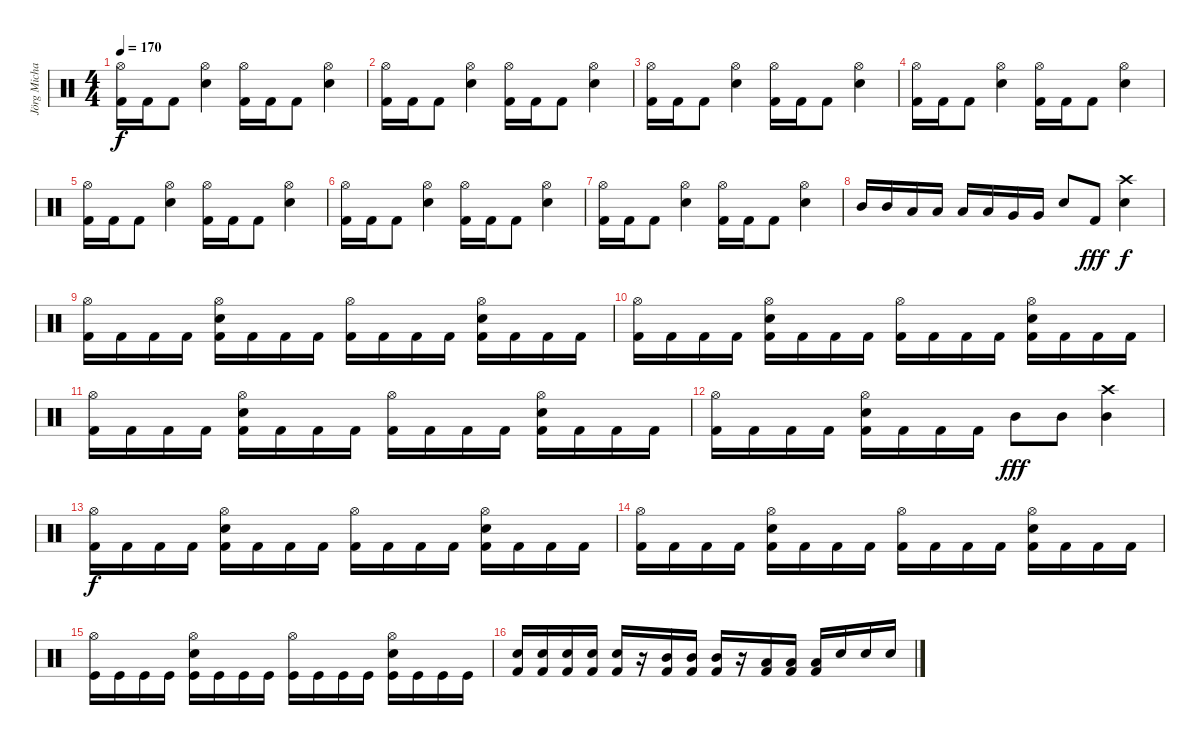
\track ("Jörg Michael" "Jörg Micha") {instrument percussion}
\staff {score}
\articulation defaults
\ts (4 4)
\tempo 170
\clef neutral
\ks c
("Hi-Hat (open)" "Kick (hit) 2").16{dy f} "Kick (hit) 2".16 "Kick (hit) 2".8 ("Hi-Hat (open)" "Snare (hit) 2").4 ("Hi-Hat (open)" "Kick (hit) 2").16 "Kick (hit) 2".16 "Kick (hit) 2".8 ("Hi-Hat (open)" "Snare (hit) 2").4 |
("Hi-Hat (open)" "Kick (hit) 2").16 "Kick (hit) 2".16 "Kick (hit) 2".8 ("Hi-Hat (open)" "Snare (hit) 2").4 ("Hi-Hat (open)" "Kick (hit) 2").16 "Kick (hit) 2".16 "Kick (hit) 2".8 ("Hi-Hat (open)" "Snare (hit) 2").4 |
("Hi-Hat (open)" "Kick (hit) 2").16 "Kick (hit) 2".16 "Kick (hit) 2".8 ("Hi-Hat (open)" "Snare (hit) 2").4 ("Hi-Hat (open)" "Kick (hit) 2").16 "Kick (hit) 2".16 "Kick (hit) 2".8 ("Hi-Hat (open)" "Snare (hit) 2").4 |
("Hi-Hat (open)" "Kick (hit) 2").16 "Kick (hit) 2".16 "Kick (hit) 2".8 ("Hi-Hat (open)" "Snare (hit) 2").4 ("Hi-Hat (open)" "Kick (hit) 2").16 "Kick (hit) 2".16 "Kick (hit) 2".8 ("Hi-Hat (open)" "Snare (hit) 2").4 |
("Hi-Hat (open)" "Kick (hit) 2").16 "Kick (hit) 2".16 "Kick (hit) 2".8 ("Hi-Hat (open)" "Snare (hit) 2").4 ("Hi-Hat (open)" "Kick (hit) 2").16 "Kick (hit) 2".16 "Kick (hit) 2".8 ("Hi-Hat (open)" "Snare (hit) 2").4 |
("Hi-Hat (open)" "Kick (hit) 2").16 "Kick (hit) 2".16 "Kick (hit) 2".8 ("Hi-Hat (open)" "Snare (hit) 2").4 ("Hi-Hat (open)" "Kick (hit) 2").16 "Kick (hit) 2".16 "Kick (hit) 2".8 ("Hi-Hat (open)" "Snare (hit) 2").4 |
("Hi-Hat (open)" "Kick (hit) 2").16 "Kick (hit) 2".16 "Kick (hit) 2".8 ("Hi-Hat (open)" "Snare (hit) 2").4 ("Hi-Hat (open)" "Kick (hit) 2").16 "Kick (hit) 2".16 "Kick (hit) 2".8 ("Hi-Hat (open)" "Snare (hit) 2").4 |
"Mid Tom (hit)".16 "Mid Tom (hit)".16 "Low Tom (hit)".16 "Low Tom (hit)".16 "Low Floor Tom (hit)".16 "Low Floor Tom (hit)".16 "Very Low Tom (hit)".16 "Very Low Tom (hit)".16 "Snare (hit) 2".8 "Kick (hit) 2".8{dy fff} ("Crash high (hit)" "Snare (hit) 2").4{dy f} |
("Hi-Hat (open)" "Kick (hit) 2").16 "Kick (hit) 2".16 "Kick (hit) 2".16 "Kick (hit) 2".16 ("Hi-Hat (open)" "Snare (hit) 2" "Kick (hit) 2").16 "Kick (hit) 2".16 "Kick (hit) 2".16 "Kick (hit) 2".16 ("Hi-Hat (open)" "Kick (hit) 2").16 "Kick (hit) 2".16 "Kick (hit) 2".16 "Kick (hit) 2".16 ("Hi-Hat (open)" "Snare (hit) 2" "Kick (hit) 2").16 "Kick (hit) 2".16 "Kick (hit) 2".16 "Kick (hit) 2".16 |
("Hi-Hat (open)" "Kick (hit) 2").16 "Kick (hit) 2".16 "Kick (hit) 2".16 "Kick (hit) 2".16 ("Hi-Hat (open)" "Snare (hit) 2" "Kick (hit) 2").16 "Kick (hit) 2".16 "Kick (hit) 2".16 "Kick (hit) 2".16 ("Hi-Hat (open)" "Kick (hit) 2").16 "Kick (hit) 2".16 "Kick (hit) 2".16 "Kick (hit) 2".16 ("Hi-Hat (open)" "Snare (hit) 2" "Kick (hit) 2").16 "Kick (hit) 2".16 "Kick (hit) 2".16 "Kick (hit) 2".16 |
("Hi-Hat (open)" "Kick (hit) 2").16 "Kick (hit) 2".16 "Kick (hit) 2".16 "Kick (hit) 2".16 ("Hi-Hat (open)" "Snare (hit) 2" "Kick (hit) 2").16 "Kick (hit) 2".16 "Kick (hit) 2".16 "Kick (hit) 2".16 ("Hi-Hat (open)" "Kick (hit) 2").16 "Kick (hit) 2".16 "Kick (hit) 2".16 "Kick (hit) 2".16 ("Hi-Hat (open)" "Snare (hit) 2" "Kick (hit) 2").16 "Kick (hit) 2".16 "Kick (hit) 2".16 "Kick (hit) 2".16 |
("Hi-Hat (open)" "Kick (hit) 2").16 "Kick (hit) 2".16 "Kick (hit) 2".16 "Kick (hit) 2".16 ("Hi-Hat (open)" "Snare (hit) 2" "Kick (hit) 2").16 "Kick (hit) 2".16 "Kick (hit) 2".16 "Kick (hit) 2".16 "Mid Tom (hit)".8{dy fff} "Mid Tom (hit)".8 ("Crash high (hit)" "Mid Tom (hit)").4 |
("Hi-Hat (open)" "Kick (hit) 2").16{dy f} "Kick (hit) 2".16 "Kick (hit) 2".16 "Kick (hit) 2".16 ("Hi-Hat (open)" "Snare (hit) 2" "Kick (hit) 2").16 "Kick (hit) 2".16 "Kick (hit) 2".16 "Kick (hit) 2".16 ("Hi-Hat (open)" "Kick (hit) 2").16 "Kick (hit) 2".16 "Kick (hit) 2".16 "Kick (hit) 2".16 ("Hi-Hat (open)" "Snare (hit) 2" "Kick (hit) 2").16 "Kick (hit) 2".16 "Kick (hit) 2".16 "Kick (hit) 2".16 |
("Hi-Hat (open)" "Kick (hit) 2").16 "Kick (hit) 2".16 "Kick (hit) 2".16 "Kick (hit) 2".16 ("Hi-Hat (open)" "Snare (hit) 2" "Kick (hit) 2").16 "Kick (hit) 2".16 "Kick (hit) 2".16 "Kick (hit) 2".16 ("Hi-Hat (open)" "Kick (hit) 2").16 "Kick (hit) 2".16 "Kick (hit) 2".16 "Kick (hit) 2".16 ("Hi-Hat (open)" "Snare (hit) 2" "Kick (hit) 2").16 "Kick (hit) 2".16 "Kick (hit) 2".16 "Kick (hit) 2".16 |
("Hi-Hat (open)" "Kick (hit)").16 "Kick (hit)".16 "Kick (hit)".16 "Kick (hit)".16 ("Hi-Hat (open)" "Electric Snare (hit)" "Kick (hit)").16 "Kick (hit)".16 "Kick (hit)".16 "Kick (hit)".16 ("Hi-Hat (open)" "Kick (hit)").16 "Kick (hit)".16 "Kick (hit)".16 "Kick (hit)".16 ("Hi-Hat (open)" "Electric Snare (hit)" "Kick (hit)").16 "Kick (hit)".16 "Kick (hit)".16 "Kick (hit)".16 |
("Snare (hit) 2" "Kick (hit) 2").16 ("Snare (hit) 2" "Kick (hit) 2").16 ("Snare (hit) 2" "Kick (hit) 2").16 ("Snare (hit) 2" "Kick (hit) 2").16 ("Snare (hit) 2" "Kick (hit) 2").16 r.16 ("Mid Tom (hit)" "Kick (hit) 2").16 ("Mid Tom (hit)" "Kick (hit) 2").16 ("Mid Tom (hit)" "Kick (hit) 2").16 r.16 ("Low Tom (hit)" "Kick (hit) 2").16 ("Low Tom (hit)" "Kick (hit) 2").16 ("Low Tom (hit)" "Kick (hit) 2").16 "Snare (hit) 2".16 "Snare (hit) 2".16 "Snare (hit) 2".16
